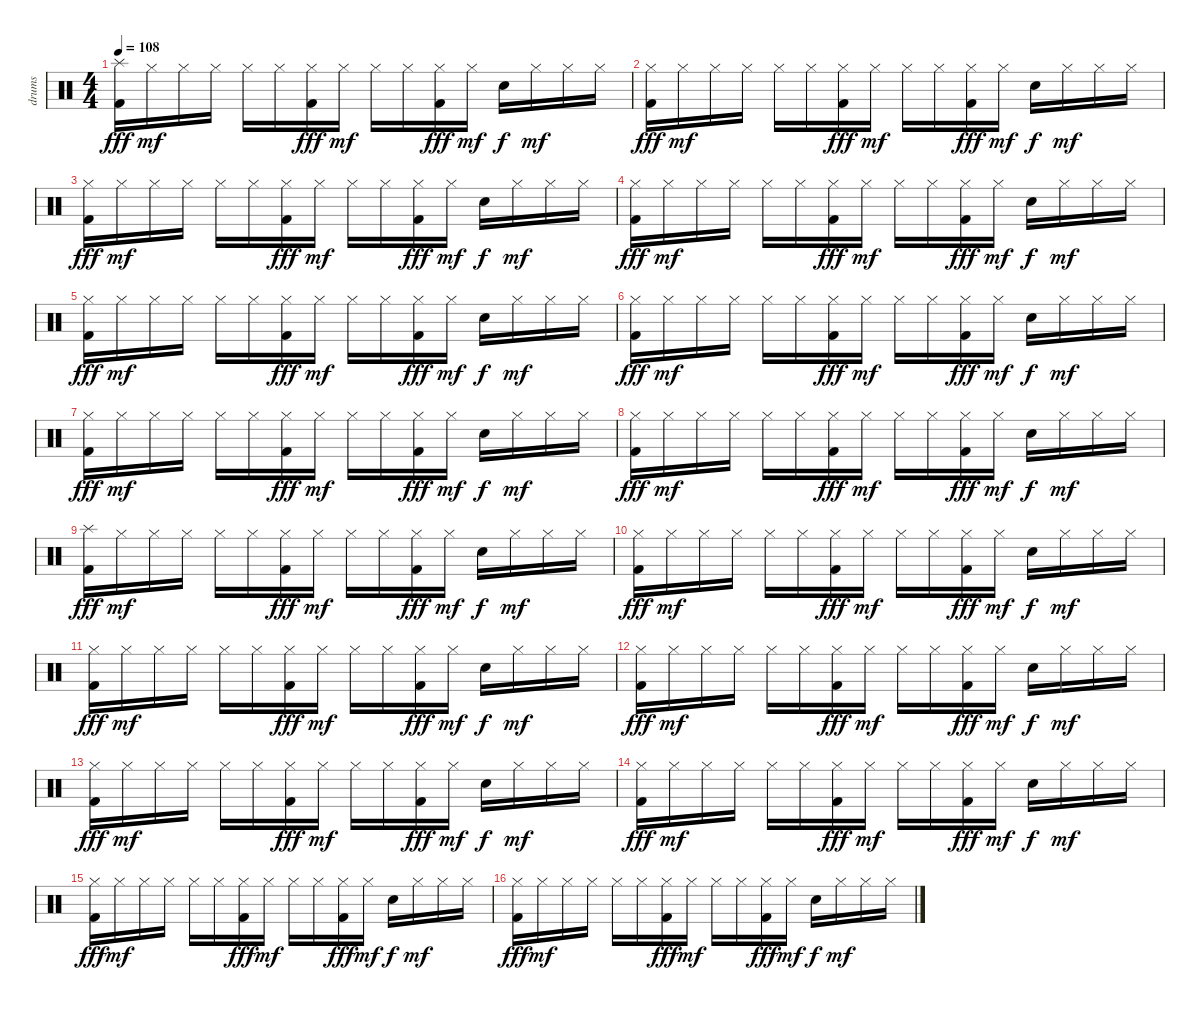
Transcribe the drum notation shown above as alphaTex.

\track ("drums" "drums") {instrument percussion}
\staff {score}
\articulation defaults
\ts (4 4)
\tempo 108
\clef neutral
\ks c
("Splash (hit)" "Kick (hit) 2").16{dy fff} "Hi-Hat (closed)".16{dy mf} "Hi-Hat (closed)".16 "Hi-Hat (closed)".16 "Hi-Hat (closed)".16 "Hi-Hat (closed)".16 ("Hi-Hat (closed)" "Kick (hit) 2").16{dy fff} "Hi-Hat (closed)".16{dy mf} "Hi-Hat (closed)".16 "Hi-Hat (closed)".16 ("Hi-Hat (closed)" "Kick (hit) 2").16{dy fff} "Hi-Hat (closed)".16{dy mf} "Snare (hit) 2".16{dy f} "Hi-Hat (closed)".16{dy mf} "Hi-Hat (closed)".16 "Hi-Hat (closed)".16 |
("Hi-Hat (closed)" "Kick (hit) 2").16{dy fff} "Hi-Hat (closed)".16{dy mf} "Hi-Hat (closed)".16 "Hi-Hat (closed)".16 "Hi-Hat (closed)".16 "Hi-Hat (closed)".16 ("Hi-Hat (closed)" "Kick (hit) 2").16{dy fff} "Hi-Hat (closed)".16{dy mf} "Hi-Hat (closed)".16 "Hi-Hat (closed)".16 ("Hi-Hat (closed)" "Kick (hit) 2").16{dy fff} "Hi-Hat (closed)".16{dy mf} "Snare (hit) 2".16{dy f} "Hi-Hat (closed)".16{dy mf} "Hi-Hat (closed)".16 "Hi-Hat (closed)".16 |
("Hi-Hat (closed)" "Kick (hit) 2").16{dy fff} "Hi-Hat (closed)".16{dy mf} "Hi-Hat (closed)".16 "Hi-Hat (closed)".16 "Hi-Hat (closed)".16 "Hi-Hat (closed)".16 ("Hi-Hat (closed)" "Kick (hit) 2").16{dy fff} "Hi-Hat (closed)".16{dy mf} "Hi-Hat (closed)".16 "Hi-Hat (closed)".16 ("Hi-Hat (closed)" "Kick (hit) 2").16{dy fff} "Hi-Hat (closed)".16{dy mf} "Snare (hit) 2".16{dy f} "Hi-Hat (closed)".16{dy mf} "Hi-Hat (closed)".16 "Hi-Hat (closed)".16 |
("Hi-Hat (closed)" "Kick (hit) 2").16{dy fff} "Hi-Hat (closed)".16{dy mf} "Hi-Hat (closed)".16 "Hi-Hat (closed)".16 "Hi-Hat (closed)".16 "Hi-Hat (closed)".16 ("Hi-Hat (closed)" "Kick (hit) 2").16{dy fff} "Hi-Hat (closed)".16{dy mf} "Hi-Hat (closed)".16 "Hi-Hat (closed)".16 ("Hi-Hat (closed)" "Kick (hit) 2").16{dy fff} "Hi-Hat (closed)".16{dy mf} "Snare (hit) 2".16{dy f} "Hi-Hat (closed)".16{dy mf} "Hi-Hat (closed)".16 "Hi-Hat (closed)".16 |
("Hi-Hat (closed)" "Kick (hit) 2").16{dy fff} "Hi-Hat (closed)".16{dy mf} "Hi-Hat (closed)".16 "Hi-Hat (closed)".16 "Hi-Hat (closed)".16 "Hi-Hat (closed)".16 ("Hi-Hat (closed)" "Kick (hit) 2").16{dy fff} "Hi-Hat (closed)".16{dy mf} "Hi-Hat (closed)".16 "Hi-Hat (closed)".16 ("Hi-Hat (closed)" "Kick (hit) 2").16{dy fff} "Hi-Hat (closed)".16{dy mf} "Snare (hit) 2".16{dy f} "Hi-Hat (closed)".16{dy mf} "Hi-Hat (closed)".16 "Hi-Hat (closed)".16 |
("Hi-Hat (closed)" "Kick (hit) 2").16{dy fff} "Hi-Hat (closed)".16{dy mf} "Hi-Hat (closed)".16 "Hi-Hat (closed)".16 "Hi-Hat (closed)".16 "Hi-Hat (closed)".16 ("Hi-Hat (closed)" "Kick (hit) 2").16{dy fff} "Hi-Hat (closed)".16{dy mf} "Hi-Hat (closed)".16 "Hi-Hat (closed)".16 ("Hi-Hat (closed)" "Kick (hit) 2").16{dy fff} "Hi-Hat (closed)".16{dy mf} "Snare (hit) 2".16{dy f} "Hi-Hat (closed)".16{dy mf} "Hi-Hat (closed)".16 "Hi-Hat (closed)".16 |
("Hi-Hat (closed)" "Kick (hit) 2").16{dy fff} "Hi-Hat (closed)".16{dy mf} "Hi-Hat (closed)".16 "Hi-Hat (closed)".16 "Hi-Hat (closed)".16 "Hi-Hat (closed)".16 ("Hi-Hat (closed)" "Kick (hit) 2").16{dy fff} "Hi-Hat (closed)".16{dy mf} "Hi-Hat (closed)".16 "Hi-Hat (closed)".16 ("Hi-Hat (closed)" "Kick (hit) 2").16{dy fff} "Hi-Hat (closed)".16{dy mf} "Snare (hit) 2".16{dy f} "Hi-Hat (closed)".16{dy mf} "Hi-Hat (closed)".16 "Hi-Hat (closed)".16 |
("Hi-Hat (closed)" "Kick (hit) 2").16{dy fff} "Hi-Hat (closed)".16{dy mf} "Hi-Hat (closed)".16 "Hi-Hat (closed)".16 "Hi-Hat (closed)".16 "Hi-Hat (closed)".16 ("Hi-Hat (closed)" "Kick (hit) 2").16{dy fff} "Hi-Hat (closed)".16{dy mf} "Hi-Hat (closed)".16 "Hi-Hat (closed)".16 ("Hi-Hat (closed)" "Kick (hit) 2").16{dy fff} "Hi-Hat (closed)".16{dy mf} "Snare (hit) 2".16{dy f} "Hi-Hat (closed)".16{dy mf} "Hi-Hat (closed)".16 "Hi-Hat (closed)".16 |
("Splash (hit)" "Kick (hit) 2").16{dy fff} "Hi-Hat (closed)".16{dy mf} "Hi-Hat (closed)".16 "Hi-Hat (closed)".16 "Hi-Hat (closed)".16 "Hi-Hat (closed)".16 ("Hi-Hat (closed)" "Kick (hit) 2").16{dy fff} "Hi-Hat (closed)".16{dy mf} "Hi-Hat (closed)".16 "Hi-Hat (closed)".16 ("Hi-Hat (closed)" "Kick (hit) 2").16{dy fff} "Hi-Hat (closed)".16{dy mf} "Snare (hit) 2".16{dy f} "Hi-Hat (closed)".16{dy mf} "Hi-Hat (closed)".16 "Hi-Hat (closed)".16 |
("Hi-Hat (closed)" "Kick (hit) 2").16{dy fff} "Hi-Hat (closed)".16{dy mf} "Hi-Hat (closed)".16 "Hi-Hat (closed)".16 "Hi-Hat (closed)".16 "Hi-Hat (closed)".16 ("Hi-Hat (closed)" "Kick (hit) 2").16{dy fff} "Hi-Hat (closed)".16{dy mf} "Hi-Hat (closed)".16 "Hi-Hat (closed)".16 ("Hi-Hat (closed)" "Kick (hit) 2").16{dy fff} "Hi-Hat (closed)".16{dy mf} "Snare (hit) 2".16{dy f} "Hi-Hat (closed)".16{dy mf} "Hi-Hat (closed)".16 "Hi-Hat (closed)".16 |
("Hi-Hat (closed)" "Kick (hit) 2").16{dy fff} "Hi-Hat (closed)".16{dy mf} "Hi-Hat (closed)".16 "Hi-Hat (closed)".16 "Hi-Hat (closed)".16 "Hi-Hat (closed)".16 ("Hi-Hat (closed)" "Kick (hit) 2").16{dy fff} "Hi-Hat (closed)".16{dy mf} "Hi-Hat (closed)".16 "Hi-Hat (closed)".16 ("Hi-Hat (closed)" "Kick (hit) 2").16{dy fff} "Hi-Hat (closed)".16{dy mf} "Snare (hit) 2".16{dy f} "Hi-Hat (closed)".16{dy mf} "Hi-Hat (closed)".16 "Hi-Hat (closed)".16 |
("Hi-Hat (closed)" "Kick (hit) 2").16{dy fff} "Hi-Hat (closed)".16{dy mf} "Hi-Hat (closed)".16 "Hi-Hat (closed)".16 "Hi-Hat (closed)".16 "Hi-Hat (closed)".16 ("Hi-Hat (closed)" "Kick (hit) 2").16{dy fff} "Hi-Hat (closed)".16{dy mf} "Hi-Hat (closed)".16 "Hi-Hat (closed)".16 ("Hi-Hat (closed)" "Kick (hit) 2").16{dy fff} "Hi-Hat (closed)".16{dy mf} "Snare (hit) 2".16{dy f} "Hi-Hat (closed)".16{dy mf} "Hi-Hat (closed)".16 "Hi-Hat (closed)".16 |
("Hi-Hat (closed)" "Kick (hit) 2").16{dy fff} "Hi-Hat (closed)".16{dy mf} "Hi-Hat (closed)".16 "Hi-Hat (closed)".16 "Hi-Hat (closed)".16 "Hi-Hat (closed)".16 ("Hi-Hat (closed)" "Kick (hit) 2").16{dy fff} "Hi-Hat (closed)".16{dy mf} "Hi-Hat (closed)".16 "Hi-Hat (closed)".16 ("Hi-Hat (closed)" "Kick (hit) 2").16{dy fff} "Hi-Hat (closed)".16{dy mf} "Snare (hit) 2".16{dy f} "Hi-Hat (closed)".16{dy mf} "Hi-Hat (closed)".16 "Hi-Hat (closed)".16 |
("Hi-Hat (closed)" "Kick (hit) 2").16{dy fff} "Hi-Hat (closed)".16{dy mf} "Hi-Hat (closed)".16 "Hi-Hat (closed)".16 "Hi-Hat (closed)".16 "Hi-Hat (closed)".16 ("Hi-Hat (closed)" "Kick (hit) 2").16{dy fff} "Hi-Hat (closed)".16{dy mf} "Hi-Hat (closed)".16 "Hi-Hat (closed)".16 ("Hi-Hat (closed)" "Kick (hit) 2").16{dy fff} "Hi-Hat (closed)".16{dy mf} "Snare (hit) 2".16{dy f} "Hi-Hat (closed)".16{dy mf} "Hi-Hat (closed)".16 "Hi-Hat (closed)".16 |
("Hi-Hat (closed)" "Kick (hit) 2").16{dy fff} "Hi-Hat (closed)".16{dy mf} "Hi-Hat (closed)".16 "Hi-Hat (closed)".16 "Hi-Hat (closed)".16 "Hi-Hat (closed)".16 ("Hi-Hat (closed)" "Kick (hit) 2").16{dy fff} "Hi-Hat (closed)".16{dy mf} "Hi-Hat (closed)".16 "Hi-Hat (closed)".16 ("Hi-Hat (closed)" "Kick (hit) 2").16{dy fff} "Hi-Hat (closed)".16{dy mf} "Snare (hit) 2".16{dy f} "Hi-Hat (closed)".16{dy mf} "Hi-Hat (closed)".16 "Hi-Hat (closed)".16 |
("Hi-Hat (closed)" "Kick (hit) 2").16{dy fff} "Hi-Hat (closed)".16{dy mf} "Hi-Hat (closed)".16 "Hi-Hat (closed)".16 "Hi-Hat (closed)".16 "Hi-Hat (closed)".16 ("Hi-Hat (closed)" "Kick (hit) 2").16{dy fff} "Hi-Hat (closed)".16{dy mf} "Hi-Hat (closed)".16 "Hi-Hat (closed)".16 ("Hi-Hat (closed)" "Kick (hit) 2").16{dy fff} "Hi-Hat (closed)".16{dy mf} "Snare (hit) 2".16{dy f} "Hi-Hat (closed)".16{dy mf} "Hi-Hat (closed)".16 "Hi-Hat (closed)".16
